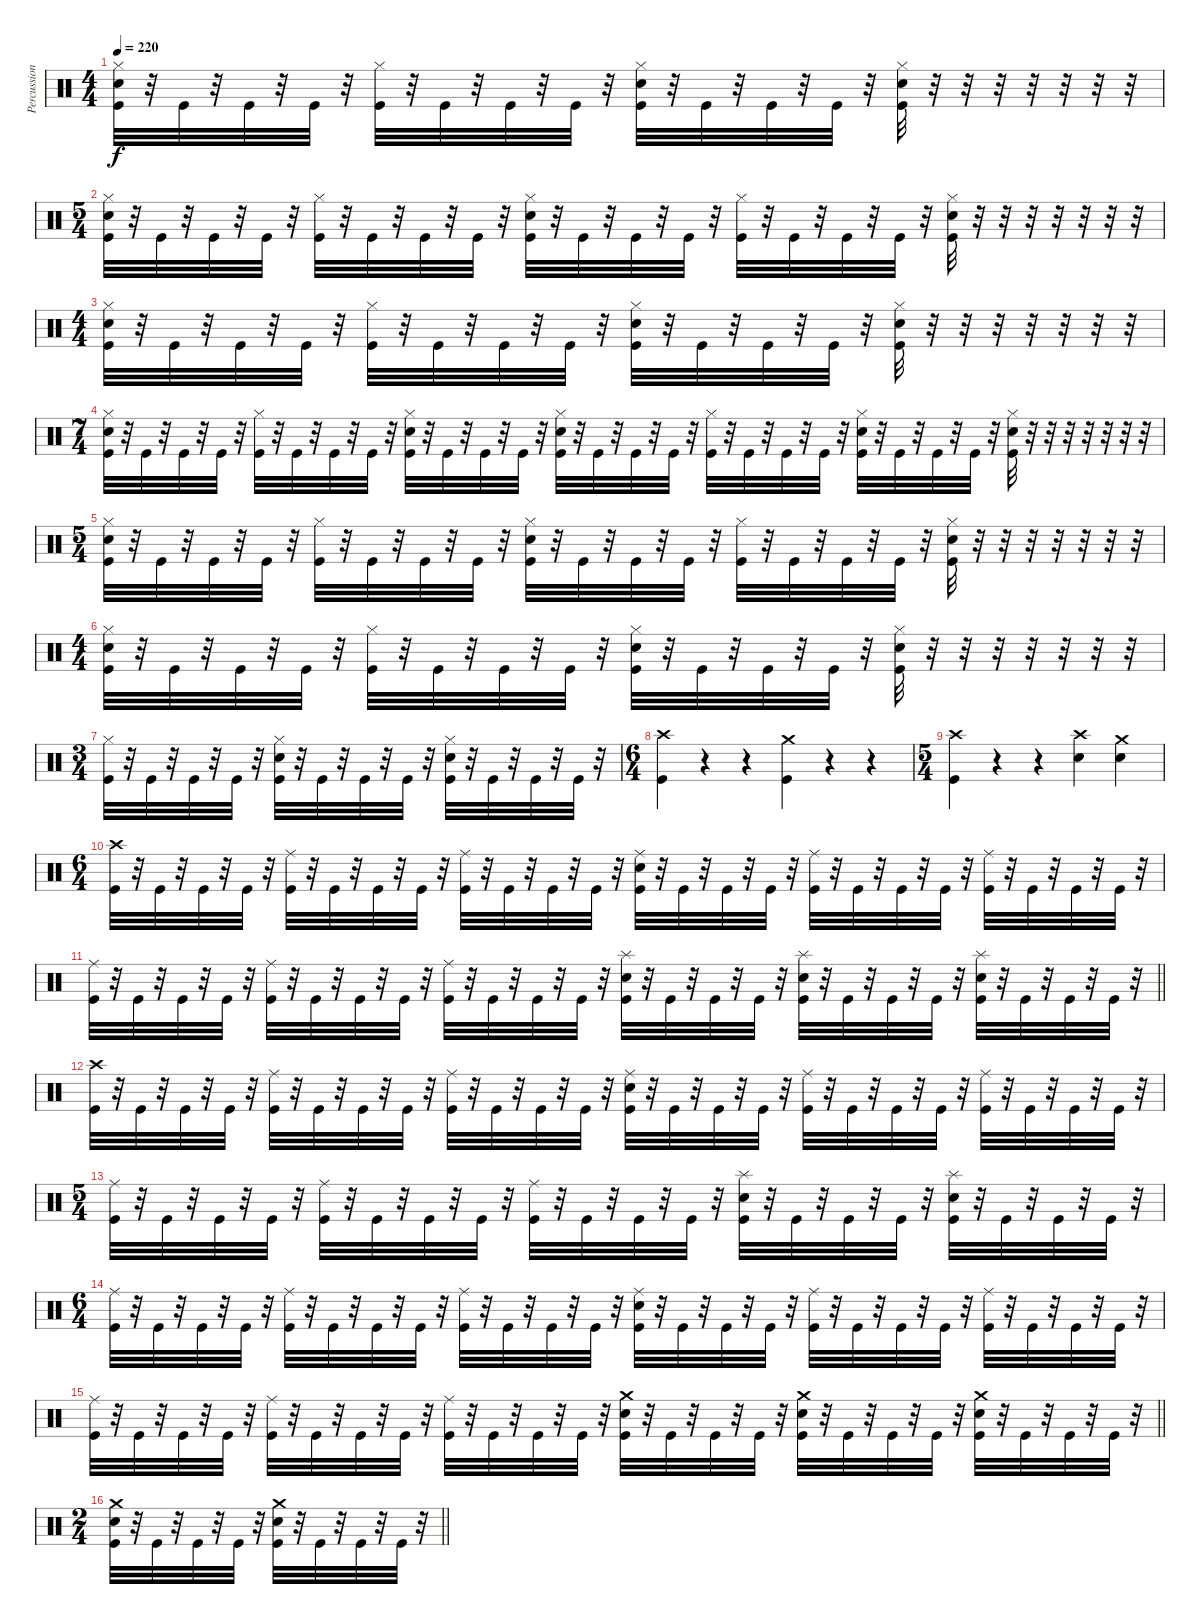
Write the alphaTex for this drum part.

\track ("Percussion" "Percussion") {instrument percussion}
\staff {score}
\articulation defaults
\ts (4 4)
\tempo 220
\clef neutral
\ks c
("Kick (hit)" "Electric Snare (hit)" "Hi-Hat (closed)").32{dy f} r.32 "Kick (hit)".32 r.32 "Kick (hit)".32 r.32 "Kick (hit)".32 r.32 ("Kick (hit)" "Hi-Hat (closed)").32 r.32 "Kick (hit)".32 r.32 "Kick (hit)".32 r.32 "Kick (hit)".32 r.32 ("Kick (hit)" "Electric Snare (hit)" "Hi-Hat (closed)").32 r.32 "Kick (hit)".32 r.32 "Kick (hit)".32 r.32 "Kick (hit)".32 r.32 ("Kick (hit)" "Electric Snare (hit)" "Hi-Hat (closed)").32 r.32 r.32 r.32 r.32 r.32 r.32 r.32 |
\ts (5 4)
("Kick (hit)" "Electric Snare (hit)" "Hi-Hat (closed)").32 r.32 "Kick (hit)".32 r.32 "Kick (hit)".32 r.32 "Kick (hit)".32 r.32 ("Kick (hit)" "Hi-Hat (closed)").32 r.32 "Kick (hit)".32 r.32 "Kick (hit)".32 r.32 "Kick (hit)".32 r.32 ("Kick (hit)" "Electric Snare (hit)" "Hi-Hat (closed)").32 r.32 "Kick (hit)".32 r.32 "Kick (hit)".32 r.32 "Kick (hit)".32 r.32 ("Kick (hit)" "Hi-Hat (closed)").32 r.32 "Kick (hit)".32 r.32 "Kick (hit)".32 r.32 "Kick (hit)".32 r.32 ("Kick (hit)" "Electric Snare (hit)" "Hi-Hat (closed)").32 r.32 r.32 r.32 r.32 r.32 r.32 r.32 |
\ts (4 4)
("Kick (hit)" "Electric Snare (hit)" "Hi-Hat (closed)").32 r.32 "Kick (hit)".32 r.32 "Kick (hit)".32 r.32 "Kick (hit)".32 r.32 ("Kick (hit)" "Hi-Hat (closed)").32 r.32 "Kick (hit)".32 r.32 "Kick (hit)".32 r.32 "Kick (hit)".32 r.32 ("Kick (hit)" "Electric Snare (hit)" "Hi-Hat (closed)").32 r.32 "Kick (hit)".32 r.32 "Kick (hit)".32 r.32 "Kick (hit)".32 r.32 ("Kick (hit)" "Electric Snare (hit)" "Hi-Hat (closed)").32 r.32 r.32 r.32 r.32 r.32 r.32 r.32 |
\ts (7 4)
("Kick (hit)" "Electric Snare (hit)" "Hi-Hat (closed)").32 r.32 "Kick (hit)".32 r.32 "Kick (hit)".32 r.32 "Kick (hit)".32 r.32 ("Kick (hit)" "Hi-Hat (closed)").32 r.32 "Kick (hit)".32 r.32 "Kick (hit)".32 r.32 "Kick (hit)".32 r.32 ("Kick (hit)" "Electric Snare (hit)" "Hi-Hat (closed)").32 r.32 "Kick (hit)".32 r.32 "Kick (hit)".32 r.32 "Kick (hit)".32 r.32 ("Kick (hit)" "Electric Snare (hit)" "Hi-Hat (closed)").32 r.32 "Kick (hit)".32 r.32 "Kick (hit)".32 r.32 "Kick (hit)".32 r.32 ("Kick (hit)" "Hi-Hat (closed)").32 r.32 "Kick (hit)".32 r.32 "Kick (hit)".32 r.32 "Kick (hit)".32 r.32 ("Kick (hit)" "Electric Snare (hit)" "Hi-Hat (closed)").32 r.32 "Kick (hit)".32 r.32 "Kick (hit)".32 r.32 "Kick (hit)".32 r.32 ("Kick (hit)" "Electric Snare (hit)" "Hi-Hat (closed)").32 r.32 r.32 r.32 r.32 r.32 r.32 r.32 |
\ts (5 4)
("Kick (hit)" "Electric Snare (hit)" "Hi-Hat (closed)").32 r.32 "Kick (hit)".32 r.32 "Kick (hit)".32 r.32 "Kick (hit)".32 r.32 ("Kick (hit)" "Hi-Hat (closed)").32 r.32 "Kick (hit)".32 r.32 "Kick (hit)".32 r.32 "Kick (hit)".32 r.32 ("Kick (hit)" "Electric Snare (hit)" "Hi-Hat (closed)").32 r.32 "Kick (hit)".32 r.32 "Kick (hit)".32 r.32 "Kick (hit)".32 r.32 ("Kick (hit)" "Hi-Hat (closed)").32 r.32 "Kick (hit)".32 r.32 "Kick (hit)".32 r.32 "Kick (hit)".32 r.32 ("Kick (hit)" "Electric Snare (hit)" "Hi-Hat (closed)").32 r.32 r.32 r.32 r.32 r.32 r.32 r.32 |
\ts (4 4)
("Kick (hit)" "Electric Snare (hit)" "Hi-Hat (closed)").32 r.32 "Kick (hit)".32 r.32 "Kick (hit)".32 r.32 "Kick (hit)".32 r.32 ("Kick (hit)" "Hi-Hat (closed)").32 r.32 "Kick (hit)".32 r.32 "Kick (hit)".32 r.32 "Kick (hit)".32 r.32 ("Kick (hit)" "Electric Snare (hit)" "Hi-Hat (closed)").32 r.32 "Kick (hit)".32 r.32 "Kick (hit)".32 r.32 "Kick (hit)".32 r.32 ("Kick (hit)" "Electric Snare (hit)" "Hi-Hat (closed)").32 r.32 r.32 r.32 r.32 r.32 r.32 r.32 |
\ts (3 4)
("Kick (hit)" "Hi-Hat (closed)").32 r.32 "Kick (hit)".32 r.32 "Kick (hit)".32 r.32 "Kick (hit)".32 r.32 ("Kick (hit)" "Electric Snare (hit)" "Hi-Hat (closed)").32 r.32 "Kick (hit)".32 r.32 "Kick (hit)".32 r.32 "Kick (hit)".32 r.32 ("Kick (hit)" "Electric Snare (hit)" "Hi-Hat (closed)").32 r.32 "Kick (hit)".32 r.32 "Kick (hit)".32 r.32 "Kick (hit)".32 r.32 |
\ts (6 4)
("Kick (hit)" "Crash high (hit)").4 r.4 r.4 ("Kick (hit)" "Crash medium (hit)").4 r.4 r.4 |
\ts (5 4)
("Kick (hit)" "Crash high (hit)").4 r.4 r.4 ("Electric Snare (hit)" "Crash high (hit)").4 ("Electric Snare (hit)" "Crash medium (hit)").4 |
\ts (6 4)
("Kick (hit)" "Crash high (hit)").32 r.32 "Kick (hit)".32 r.32 "Kick (hit)".32 r.32 "Kick (hit)".32 r.32 ("Kick (hit)" "Ride (middle)").32 r.32 "Kick (hit)".32 r.32 "Kick (hit)".32 r.32 "Kick (hit)".32 r.32 ("Kick (hit)" "Ride (middle)").32 r.32 "Kick (hit)".32 r.32 "Kick (hit)".32 r.32 "Kick (hit)".32 r.32 ("Kick (hit)" "Electric Snare (hit)" "Ride (middle)").32 r.32 "Kick (hit)".32 r.32 "Kick (hit)".32 r.32 "Kick (hit)".32 r.32 ("Kick (hit)" "Ride (middle)").32 r.32 "Kick (hit)".32 r.32 "Kick (hit)".32 r.32 "Kick (hit)".32 r.32 ("Kick (hit)" "Ride (middle)").32 r.32 "Kick (hit)".32 r.32 "Kick (hit)".32 r.32 "Kick (hit)".32 r.32 |
\barLineRight lightlight
("Kick (hit)" "Ride (middle)").32 r.32 "Kick (hit)".32 r.32 "Kick (hit)".32 r.32 "Kick (hit)".32 r.32 ("Kick (hit)" "Ride (middle)").32 r.32 "Kick (hit)".32 r.32 "Kick (hit)".32 r.32 "Kick (hit)".32 r.32 ("Kick (hit)" "Ride (middle)").32 r.32 "Kick (hit)".32 r.32 "Kick (hit)".32 r.32 "Kick (hit)".32 r.32 ("Kick (hit)" "Electric Snare (hit)" "Splash (hit)").32 r.32 "Kick (hit)".32 r.32 "Kick (hit)".32 r.32 "Kick (hit)".32 r.32 ("Kick (hit)" "Electric Snare (hit)" "Splash (hit)").32 r.32 "Kick (hit)".32 r.32 "Kick (hit)".32 r.32 "Kick (hit)".32 r.32 ("Kick (hit)" "Electric Snare (hit)" "Splash (hit)").32 r.32 "Kick (hit)".32 r.32 "Kick (hit)".32 r.32 "Kick (hit)".32 r.32 |
("Kick (hit)" "Crash high (hit)").32 r.32 "Kick (hit)".32 r.32 "Kick (hit)".32 r.32 "Kick (hit)".32 r.32 ("Kick (hit)" "Ride (middle)").32 r.32 "Kick (hit)".32 r.32 "Kick (hit)".32 r.32 "Kick (hit)".32 r.32 ("Kick (hit)" "Ride (middle)").32 r.32 "Kick (hit)".32 r.32 "Kick (hit)".32 r.32 "Kick (hit)".32 r.32 ("Kick (hit)" "Electric Snare (hit)" "Ride (middle)").32 r.32 "Kick (hit)".32 r.32 "Kick (hit)".32 r.32 "Kick (hit)".32 r.32 ("Kick (hit)" "Ride (middle)").32 r.32 "Kick (hit)".32 r.32 "Kick (hit)".32 r.32 "Kick (hit)".32 r.32 ("Kick (hit)" "Ride (middle)").32 r.32 "Kick (hit)".32 r.32 "Kick (hit)".32 r.32 "Kick (hit)".32 r.32 |
\ts (5 4)
("Kick (hit)" "Ride (middle)").32 r.32 "Kick (hit)".32 r.32 "Kick (hit)".32 r.32 "Kick (hit)".32 r.32 ("Kick (hit)" "Ride (middle)").32 r.32 "Kick (hit)".32 r.32 "Kick (hit)".32 r.32 "Kick (hit)".32 r.32 ("Kick (hit)" "Ride (middle)").32 r.32 "Kick (hit)".32 r.32 "Kick (hit)".32 r.32 "Kick (hit)".32 r.32 ("Kick (hit)" "Electric Snare (hit)" "Splash (hit)").32 r.32 "Kick (hit)".32 r.32 "Kick (hit)".32 r.32 "Kick (hit)".32 r.32 ("Kick (hit)" "Electric Snare (hit)" "Splash (hit)").32 r.32 "Kick (hit)".32 r.32 "Kick (hit)".32 r.32 "Kick (hit)".32 r.32 |
\ts (6 4)
("Kick (hit)" "Ride (middle)").32 r.32 "Kick (hit)".32 r.32 "Kick (hit)".32 r.32 "Kick (hit)".32 r.32 ("Kick (hit)" "Ride (middle)").32 r.32 "Kick (hit)".32 r.32 "Kick (hit)".32 r.32 "Kick (hit)".32 r.32 ("Kick (hit)" "Ride (middle)").32 r.32 "Kick (hit)".32 r.32 "Kick (hit)".32 r.32 "Kick (hit)".32 r.32 ("Kick (hit)" "Electric Snare (hit)" "Ride (middle)").32 r.32 "Kick (hit)".32 r.32 "Kick (hit)".32 r.32 "Kick (hit)".32 r.32 ("Kick (hit)" "Ride (middle)").32 r.32 "Kick (hit)".32 r.32 "Kick (hit)".32 r.32 "Kick (hit)".32 r.32 ("Kick (hit)" "Ride (middle)").32 r.32 "Kick (hit)".32 r.32 "Kick (hit)".32 r.32 "Kick (hit)".32 r.32 |
\barLineRight lightlight
("Kick (hit)" "Ride (middle)").32 r.32 "Kick (hit)".32 r.32 "Kick (hit)".32 r.32 "Kick (hit)".32 r.32 ("Kick (hit)" "Ride (middle)").32 r.32 "Kick (hit)".32 r.32 "Kick (hit)".32 r.32 "Kick (hit)".32 r.32 ("Kick (hit)" "Ride (middle)").32 r.32 "Kick (hit)".32 r.32 "Kick (hit)".32 r.32 "Kick (hit)".32 r.32 ("Kick (hit)" "Electric Snare (hit)" "Crash medium (hit)").32 r.32 "Kick (hit)".32 r.32 "Kick (hit)".32 r.32 "Kick (hit)".32 r.32 ("Kick (hit)" "Electric Snare (hit)" "Crash medium (hit)").32 r.32 "Kick (hit)".32 r.32 "Kick (hit)".32 r.32 "Kick (hit)".32 r.32 ("Kick (hit)" "Electric Snare (hit)" "Crash medium (hit)").32 r.32 "Kick (hit)".32 r.32 "Kick (hit)".32 r.32 "Kick (hit)".32 r.32 |
\ts (2 4)
\barLineRight lightlight
("Kick (hit)" "Electric Snare (hit)" "Crash medium (hit)").32 r.32 "Kick (hit)".32 r.32 "Kick (hit)".32 r.32 "Kick (hit)".32 r.32 ("Kick (hit)" "Electric Snare (hit)" "Crash medium (hit)").32 r.32 "Kick (hit)".32 r.32 "Kick (hit)".32 r.32 "Kick (hit)".32 r.32
